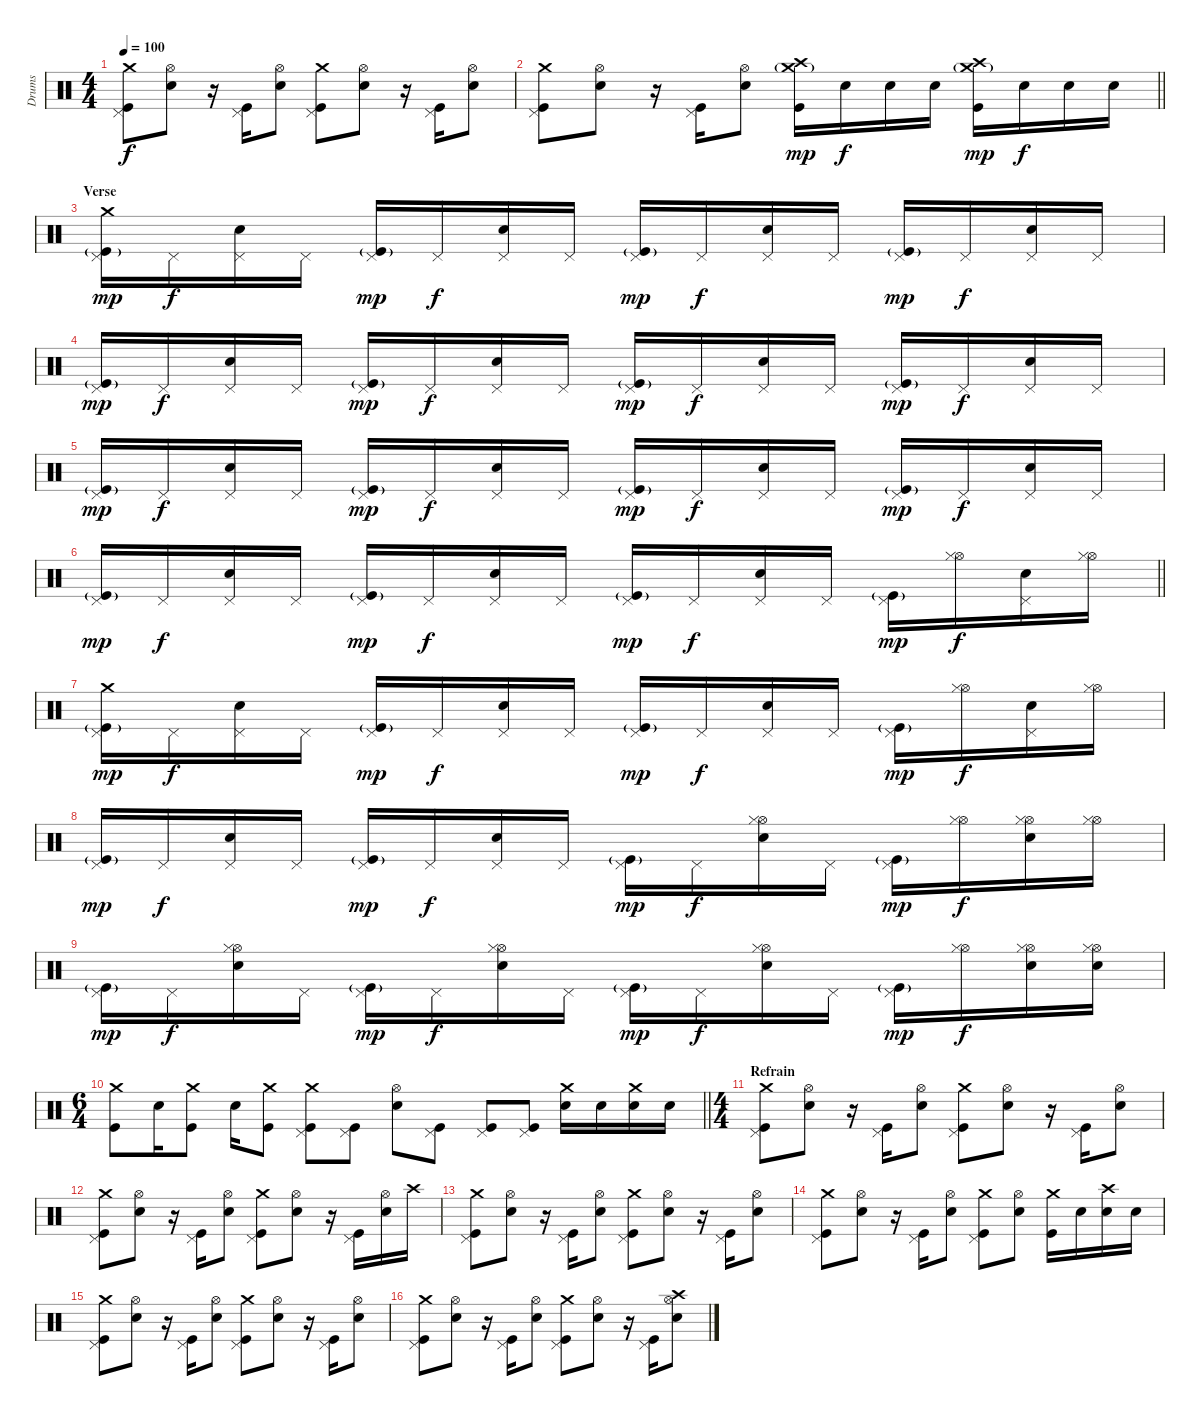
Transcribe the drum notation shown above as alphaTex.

\track ("Drums" "Drums") {instrument percussion}
\staff {score}
\articulation defaults
\ts (4 4)
\tempo 100
\clef neutral
\ks c
("Crash medium (hit)" "Pedal Hi-Hat (hit)" "Kick (hit)").8{dy f} ("Hi-Hat (open)" "Electric Snare (hit)").8 r.16 ("Pedal Hi-Hat (hit)" "Kick (hit)").16 ("Hi-Hat (open)" "Electric Snare (hit)").8 ("Crash medium (hit)" "Pedal Hi-Hat (hit)" "Kick (hit)").8 ("Hi-Hat (open)" "Electric Snare (hit)").8 r.16 ("Pedal Hi-Hat (hit)" "Kick (hit)").16 ("Hi-Hat (open)" "Electric Snare (hit)").8 |
\barLineRight lightlight
("Crash medium (hit)" "Pedal Hi-Hat (hit)" "Kick (hit)").8 ("Hi-Hat (open)" "Electric Snare (hit)").8 r.16 ("Pedal Hi-Hat (hit)" "Kick (hit)").16 ("Hi-Hat (open)" "Electric Snare (hit)").8 ("Crash high (hit)" "Crash medium (hit)"{g} "Kick (hit)").16{dy mp} "Electric Snare (hit)".16{dy f} "Electric Snare (hit)".16 "Electric Snare (hit)".16 ("Crash high (hit)" "Crash medium (hit)"{g} "Kick (hit)").16{dy mp} "Electric Snare (hit)".16{dy f} "Electric Snare (hit)".16 "Electric Snare (hit)".16 |
\section ("" "Verse")
("Pedal Hi-Hat (hit)" "Crash medium (hit)" "Kick (hit)"{g}).16{dy mp} "Pedal Hi-Hat (hit)".16{dy f} ("Pedal Hi-Hat (hit)" "Electric Snare (hit)").16 "Pedal Hi-Hat (hit)".16 ("Pedal Hi-Hat (hit)" "Kick (hit)"{g}).16{dy mp} "Pedal Hi-Hat (hit)".16{dy f} ("Pedal Hi-Hat (hit)" "Electric Snare (hit)").16 "Pedal Hi-Hat (hit)".16 ("Pedal Hi-Hat (hit)" "Kick (hit)"{g}).16{dy mp} "Pedal Hi-Hat (hit)".16{dy f} ("Pedal Hi-Hat (hit)" "Electric Snare (hit)").16 "Pedal Hi-Hat (hit)".16 ("Pedal Hi-Hat (hit)" "Kick (hit)"{g}).16{dy mp} "Pedal Hi-Hat (hit)".16{dy f} ("Pedal Hi-Hat (hit)" "Electric Snare (hit)").16 "Pedal Hi-Hat (hit)".16 |
("Pedal Hi-Hat (hit)" "Kick (hit)"{g}).16{dy mp} "Pedal Hi-Hat (hit)".16{dy f} ("Pedal Hi-Hat (hit)" "Electric Snare (hit)").16 "Pedal Hi-Hat (hit)".16 ("Pedal Hi-Hat (hit)" "Kick (hit)"{g}).16{dy mp} "Pedal Hi-Hat (hit)".16{dy f} ("Pedal Hi-Hat (hit)" "Electric Snare (hit)").16 "Pedal Hi-Hat (hit)".16 ("Pedal Hi-Hat (hit)" "Kick (hit)"{g}).16{dy mp} "Pedal Hi-Hat (hit)".16{dy f} ("Pedal Hi-Hat (hit)" "Electric Snare (hit)").16 "Pedal Hi-Hat (hit)".16 ("Pedal Hi-Hat (hit)" "Kick (hit)"{g}).16{dy mp} "Pedal Hi-Hat (hit)".16{dy f} ("Pedal Hi-Hat (hit)" "Electric Snare (hit)").16 "Pedal Hi-Hat (hit)".16 |
("Pedal Hi-Hat (hit)" "Kick (hit)"{g}).16{dy mp} "Pedal Hi-Hat (hit)".16{dy f} ("Pedal Hi-Hat (hit)" "Electric Snare (hit)").16 "Pedal Hi-Hat (hit)".16 ("Pedal Hi-Hat (hit)" "Kick (hit)"{g}).16{dy mp} "Pedal Hi-Hat (hit)".16{dy f} ("Pedal Hi-Hat (hit)" "Electric Snare (hit)").16 "Pedal Hi-Hat (hit)".16 ("Pedal Hi-Hat (hit)" "Kick (hit)"{g}).16{dy mp} "Pedal Hi-Hat (hit)".16{dy f} ("Pedal Hi-Hat (hit)" "Electric Snare (hit)").16 "Pedal Hi-Hat (hit)".16 ("Pedal Hi-Hat (hit)" "Kick (hit)"{g}).16{dy mp} "Pedal Hi-Hat (hit)".16{dy f} ("Pedal Hi-Hat (hit)" "Electric Snare (hit)").16 "Pedal Hi-Hat (hit)".16 |
\barLineRight lightlight
("Pedal Hi-Hat (hit)" "Kick (hit)"{g}).16{dy mp} "Pedal Hi-Hat (hit)".16{dy f} ("Pedal Hi-Hat (hit)" "Electric Snare (hit)").16 "Pedal Hi-Hat (hit)".16 ("Pedal Hi-Hat (hit)" "Kick (hit)"{g}).16{dy mp} "Pedal Hi-Hat (hit)".16{dy f} ("Pedal Hi-Hat (hit)" "Electric Snare (hit)").16 "Pedal Hi-Hat (hit)".16 ("Pedal Hi-Hat (hit)" "Kick (hit)"{g}).16{dy mp} "Pedal Hi-Hat (hit)".16{dy f} ("Pedal Hi-Hat (hit)" "Electric Snare (hit)").16 "Pedal Hi-Hat (hit)".16 ("Pedal Hi-Hat (hit)" "Kick (hit)"{g}).16{dy mp} ("Hi-Hat (open)" "Hi-Hat (closed)").16{dy f} ("Pedal Hi-Hat (hit)" "Electric Snare (hit)").16 ("Hi-Hat (open)" "Hi-Hat (closed)").16 |
("Pedal Hi-Hat (hit)" "Crash medium (hit)" "Kick (hit)"{g}).16{dy mp} "Pedal Hi-Hat (hit)".16{dy f} ("Pedal Hi-Hat (hit)" "Electric Snare (hit)").16 "Pedal Hi-Hat (hit)".16 ("Pedal Hi-Hat (hit)" "Kick (hit)"{g}).16{dy mp} "Pedal Hi-Hat (hit)".16{dy f} ("Pedal Hi-Hat (hit)" "Electric Snare (hit)").16 "Pedal Hi-Hat (hit)".16 ("Pedal Hi-Hat (hit)" "Kick (hit)"{g}).16{dy mp} "Pedal Hi-Hat (hit)".16{dy f} ("Pedal Hi-Hat (hit)" "Electric Snare (hit)").16 "Pedal Hi-Hat (hit)".16 ("Pedal Hi-Hat (hit)" "Kick (hit)"{g}).16{dy mp} ("Hi-Hat (open)" "Hi-Hat (closed)").16{dy f} ("Pedal Hi-Hat (hit)" "Electric Snare (hit)").16 ("Hi-Hat (open)" "Hi-Hat (closed)").16 |
("Pedal Hi-Hat (hit)" "Kick (hit)"{g}).16{dy mp} "Pedal Hi-Hat (hit)".16{dy f} ("Pedal Hi-Hat (hit)" "Electric Snare (hit)").16 "Pedal Hi-Hat (hit)".16 ("Pedal Hi-Hat (hit)" "Kick (hit)"{g}).16{dy mp} "Pedal Hi-Hat (hit)".16{dy f} ("Pedal Hi-Hat (hit)" "Electric Snare (hit)").16 "Pedal Hi-Hat (hit)".16 ("Pedal Hi-Hat (hit)" "Kick (hit)"{g}).16{dy mp} "Pedal Hi-Hat (hit)".16{dy f} ("Hi-Hat (open)" "Hi-Hat (closed)" "Electric Snare (hit)").16 "Pedal Hi-Hat (hit)".16 ("Pedal Hi-Hat (hit)" "Kick (hit)"{g}).16{dy mp} ("Hi-Hat (open)" "Hi-Hat (closed)").16{dy f} ("Hi-Hat (open)" "Hi-Hat (closed)" "Electric Snare (hit)").16 ("Hi-Hat (open)" "Hi-Hat (closed)").16 |
("Pedal Hi-Hat (hit)" "Kick (hit)"{g}).16{dy mp} "Pedal Hi-Hat (hit)".16{dy f} ("Hi-Hat (open)" "Hi-Hat (closed)" "Electric Snare (hit)").16 "Pedal Hi-Hat (hit)".16 ("Pedal Hi-Hat (hit)" "Kick (hit)"{g}).16{dy mp} "Pedal Hi-Hat (hit)".16{dy f} ("Hi-Hat (open)" "Hi-Hat (closed)" "Electric Snare (hit)").16 "Pedal Hi-Hat (hit)".16 ("Pedal Hi-Hat (hit)" "Kick (hit)"{g}).16{dy mp} "Pedal Hi-Hat (hit)".16{dy f} ("Hi-Hat (open)" "Hi-Hat (closed)" "Electric Snare (hit)").16 "Pedal Hi-Hat (hit)".16 ("Pedal Hi-Hat (hit)" "Kick (hit)"{g}).16{dy mp} ("Hi-Hat (open)" "Hi-Hat (closed)").16{dy f} ("Hi-Hat (open)" "Hi-Hat (closed)" "Electric Snare (hit)").16 ("Hi-Hat (open)" "Hi-Hat (closed)" "Electric Snare (hit)").16 |
\ts (6 4)
\barLineRight lightlight
("Crash medium (hit)" "Kick (hit)").8 "Electric Snare (hit)".16 ("Crash medium (hit)" "Kick (hit)").8 "Electric Snare (hit)".16 ("Crash medium (hit)" "Kick (hit)").8 ("Crash medium (hit)" "Pedal Hi-Hat (hit)" "Kick (hit)").8 ("Pedal Hi-Hat (hit)" "Kick (hit)").8 ("Hi-Hat (open)" "Electric Snare (hit)").8 ("Pedal Hi-Hat (hit)" "Kick (hit)").8 ("Pedal Hi-Hat (hit)" "Kick (hit)").8 ("Pedal Hi-Hat (hit)" "Kick (hit)").8 ("Crash medium (hit)" "Electric Snare (hit)").16 "Electric Snare (hit)".16 ("Crash medium (hit)" "Electric Snare (hit)").16 "Electric Snare (hit)".16 |
\ts (4 4)
\section ("" "Refrain")
("Crash medium (hit)" "Pedal Hi-Hat (hit)" "Kick (hit)").8 ("Hi-Hat (open)" "Electric Snare (hit)").8 r.16 ("Pedal Hi-Hat (hit)" "Kick (hit)").16 ("Hi-Hat (open)" "Electric Snare (hit)").8 ("Crash medium (hit)" "Pedal Hi-Hat (hit)" "Kick (hit)").8 ("Hi-Hat (open)" "Electric Snare (hit)").8 r.16 ("Pedal Hi-Hat (hit)" "Kick (hit)").16 ("Hi-Hat (open)" "Electric Snare (hit)").8 |
("Crash medium (hit)" "Pedal Hi-Hat (hit)" "Kick (hit)").8 ("Hi-Hat (open)" "Electric Snare (hit)").8 r.16 ("Pedal Hi-Hat (hit)" "Kick (hit)").16 ("Hi-Hat (open)" "Electric Snare (hit)").8 ("Crash medium (hit)" "Pedal Hi-Hat (hit)" "Kick (hit)").8 ("Hi-Hat (open)" "Electric Snare (hit)").8 r.16 ("Pedal Hi-Hat (hit)" "Kick (hit)").16 ("Hi-Hat (open)" "Electric Snare (hit)").16 "Crash high (hit)".16 |
("Crash medium (hit)" "Pedal Hi-Hat (hit)" "Kick (hit)").8 ("Hi-Hat (open)" "Electric Snare (hit)").8 r.16 ("Pedal Hi-Hat (hit)" "Kick (hit)").16 ("Hi-Hat (open)" "Electric Snare (hit)").8 ("Crash medium (hit)" "Pedal Hi-Hat (hit)" "Kick (hit)").8 ("Hi-Hat (open)" "Electric Snare (hit)").8 r.16 ("Pedal Hi-Hat (hit)" "Kick (hit)").16 ("Hi-Hat (open)" "Electric Snare (hit)").8 |
("Crash medium (hit)" "Pedal Hi-Hat (hit)" "Kick (hit)").8 ("Hi-Hat (open)" "Electric Snare (hit)").8 r.16 ("Pedal Hi-Hat (hit)" "Kick (hit)").16 ("Hi-Hat (open)" "Electric Snare (hit)").8 ("Crash medium (hit)" "Pedal Hi-Hat (hit)" "Kick (hit)").8 ("Hi-Hat (open)" "Electric Snare (hit)").8 ("Crash medium (hit)" "Kick (hit)").16 "Electric Snare (hit)".16 ("Crash high (hit)" "Electric Snare (hit)").16 "Electric Snare (hit)".16 |
("Crash medium (hit)" "Pedal Hi-Hat (hit)" "Kick (hit)").8 ("Hi-Hat (open)" "Electric Snare (hit)").8 r.16 ("Pedal Hi-Hat (hit)" "Kick (hit)").16 ("Hi-Hat (open)" "Electric Snare (hit)").8 ("Crash medium (hit)" "Pedal Hi-Hat (hit)" "Kick (hit)").8 ("Hi-Hat (open)" "Electric Snare (hit)").8 r.16 ("Pedal Hi-Hat (hit)" "Kick (hit)").16 ("Hi-Hat (open)" "Electric Snare (hit)").8 |
("Crash medium (hit)" "Pedal Hi-Hat (hit)" "Kick (hit)").8 ("Hi-Hat (open)" "Electric Snare (hit)").8 r.16 ("Pedal Hi-Hat (hit)" "Kick (hit)").16 ("Hi-Hat (open)" "Electric Snare (hit)").8 ("Crash medium (hit)" "Pedal Hi-Hat (hit)" "Kick (hit)").8 ("Hi-Hat (open)" "Electric Snare (hit)").8 r.16 ("Pedal Hi-Hat (hit)" "Kick (hit)").16 ("Crash high (hit)" "Hi-Hat (open)" "Electric Snare (hit)").8
